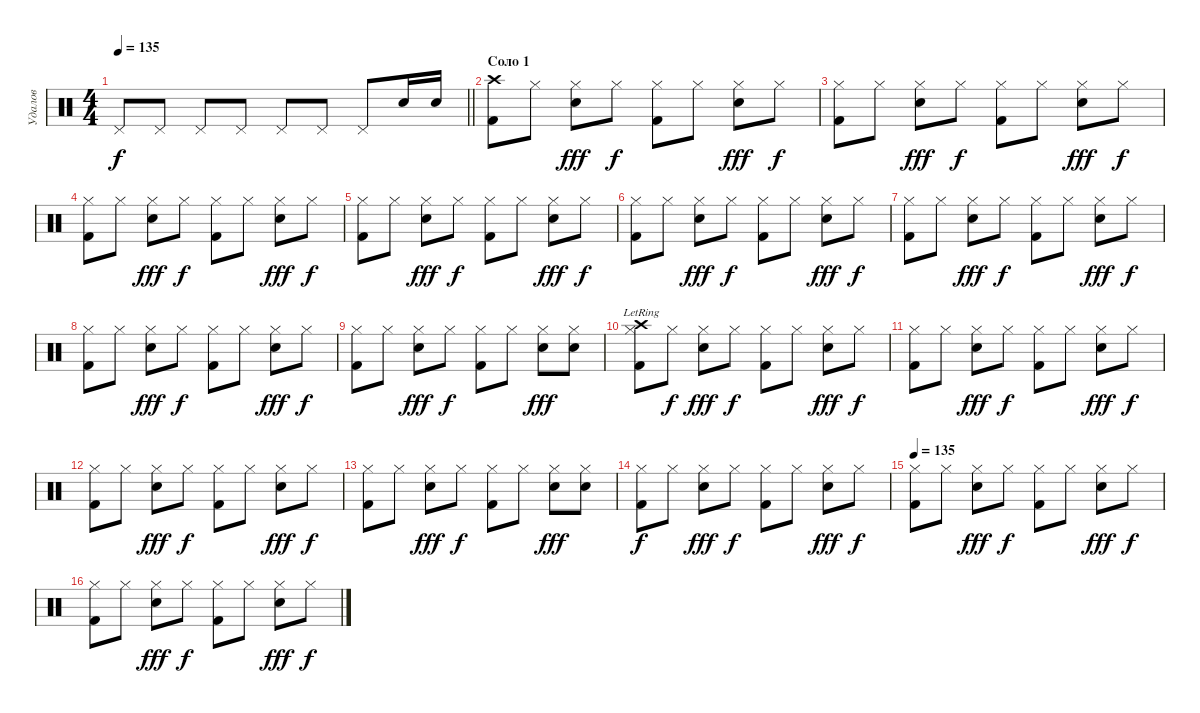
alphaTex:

\track ("Удалов" "Удалов") {instrument percussion}
\staff {score}
\articulation defaults
\ts (4 4)
\tempo 135
\clef neutral
\barLineRight lightlight
\ks c "Pedal Hi-Hat (hit)".8{dy f} "Pedal Hi-Hat (hit)".8 "Pedal Hi-Hat (hit)".8 "Pedal Hi-Hat (hit)".8 "Pedal Hi-Hat (hit)".8 "Pedal Hi-Hat (hit)".8 "Pedal Hi-Hat (hit)".8 "Snare (hit) 2".16 "Snare (hit) 2".16
|
\section ("" "Соло 1")
("Crash high (hit)" "Kick (hit) 2").8 "Hi-Hat (closed)".8 ("Hi-Hat (closed)" "Snare (hit) 2").8{dy fff} "Hi-Hat (closed)".8{dy f} ("Hi-Hat (closed)" "Kick (hit) 2").8 "Hi-Hat (closed)".8 ("Hi-Hat (closed)" "Snare (hit) 2").8{dy fff} "Hi-Hat (closed)".8{dy f} |
("Hi-Hat (closed)" "Kick (hit) 2").8 "Hi-Hat (closed)".8 ("Hi-Hat (closed)" "Snare (hit) 2").8{dy fff} "Hi-Hat (closed)".8{dy f} ("Hi-Hat (closed)" "Kick (hit) 2").8 "Hi-Hat (closed)".8 ("Hi-Hat (closed)" "Snare (hit) 2").8{dy fff} "Hi-Hat (closed)".8{dy f} |
("Hi-Hat (closed)" "Kick (hit) 2").8 "Hi-Hat (closed)".8 ("Hi-Hat (closed)" "Snare (hit) 2").8{dy fff} "Hi-Hat (closed)".8{dy f} ("Hi-Hat (closed)" "Kick (hit) 2").8 "Hi-Hat (closed)".8 ("Hi-Hat (closed)" "Snare (hit) 2").8{dy fff} "Hi-Hat (closed)".8{dy f} |
("Hi-Hat (closed)" "Kick (hit) 2").8 "Hi-Hat (closed)".8 ("Hi-Hat (closed)" "Snare (hit) 2").8{dy fff} "Hi-Hat (closed)".8{dy f} ("Hi-Hat (closed)" "Kick (hit) 2").8 "Hi-Hat (closed)".8 ("Hi-Hat (closed)" "Snare (hit) 2").8{dy fff} "Hi-Hat (closed)".8{dy f} |
("Hi-Hat (closed)" "Kick (hit) 2").8 "Hi-Hat (closed)".8 ("Hi-Hat (closed)" "Snare (hit) 2").8{dy fff} "Hi-Hat (closed)".8{dy f} ("Hi-Hat (closed)" "Kick (hit) 2").8 "Hi-Hat (closed)".8 ("Hi-Hat (closed)" "Snare (hit) 2").8{dy fff} "Hi-Hat (closed)".8{dy f} |
("Hi-Hat (closed)" "Kick (hit) 2").8 "Hi-Hat (closed)".8 ("Hi-Hat (closed)" "Snare (hit) 2").8{dy fff} "Hi-Hat (closed)".8{dy f} ("Hi-Hat (closed)" "Kick (hit) 2").8 "Hi-Hat (closed)".8 ("Hi-Hat (closed)" "Snare (hit) 2").8{dy fff} "Hi-Hat (closed)".8{dy f} |
("Hi-Hat (closed)" "Kick (hit) 2").8 "Hi-Hat (closed)".8 ("Hi-Hat (closed)" "Snare (hit) 2").8{dy fff} "Hi-Hat (closed)".8{dy f} ("Hi-Hat (closed)" "Kick (hit) 2").8 "Hi-Hat (closed)".8 ("Hi-Hat (closed)" "Snare (hit) 2").8{dy fff} "Hi-Hat (closed)".8{dy f} |
("Hi-Hat (closed)" "Kick (hit) 2").8 "Hi-Hat (closed)".8 ("Hi-Hat (closed)" "Snare (hit) 2").8{dy fff} "Hi-Hat (closed)".8{dy f} ("Hi-Hat (closed)" "Kick (hit) 2").8 "Hi-Hat (closed)".8 ("Hi-Hat (closed)" "Snare (hit) 2").8{dy fff} ("Hi-Hat (closed)" "Snare (hit) 2").8 |
("Hi-Hat (closed)" "Kick (hit) 2" "Crash high (hit)"{lr}).8 "Hi-Hat (closed)".8{dy f} ("Hi-Hat (closed)" "Snare (hit) 2").8{dy fff} "Hi-Hat (closed)".8{dy f} ("Hi-Hat (closed)" "Kick (hit) 2").8 "Hi-Hat (closed)".8 ("Hi-Hat (closed)" "Snare (hit) 2").8{dy fff} "Hi-Hat (closed)".8{dy f} |
("Hi-Hat (closed)" "Kick (hit) 2").8 "Hi-Hat (closed)".8 ("Hi-Hat (closed)" "Snare (hit) 2").8{dy fff} "Hi-Hat (closed)".8{dy f} ("Hi-Hat (closed)" "Kick (hit) 2").8 "Hi-Hat (closed)".8 ("Hi-Hat (closed)" "Snare (hit) 2").8{dy fff} "Hi-Hat (closed)".8{dy f} |
("Hi-Hat (closed)" "Kick (hit) 2").8 "Hi-Hat (closed)".8 ("Hi-Hat (closed)" "Snare (hit) 2").8{dy fff} "Hi-Hat (closed)".8{dy f} ("Hi-Hat (closed)" "Kick (hit) 2").8 "Hi-Hat (closed)".8 ("Hi-Hat (closed)" "Snare (hit) 2").8{dy fff} "Hi-Hat (closed)".8{dy f} |
("Hi-Hat (closed)" "Kick (hit) 2").8 "Hi-Hat (closed)".8 ("Hi-Hat (closed)" "Snare (hit) 2").8{dy fff} "Hi-Hat (closed)".8{dy f} ("Hi-Hat (closed)" "Kick (hit) 2").8 "Hi-Hat (closed)".8 ("Hi-Hat (closed)" "Snare (hit) 2").8{dy fff} ("Hi-Hat (closed)" "Snare (hit) 2").8 |
("Hi-Hat (closed)" "Kick (hit) 2").8{dy f} "Hi-Hat (closed)".8 ("Hi-Hat (closed)" "Snare (hit) 2").8{dy fff} "Hi-Hat (closed)".8{dy f} ("Hi-Hat (closed)" "Kick (hit) 2").8 "Hi-Hat (closed)".8 ("Hi-Hat (closed)" "Snare (hit) 2").8{dy fff} "Hi-Hat (closed)".8{dy f} |
\tempo 135
("Hi-Hat (closed)" "Kick (hit) 2").8 "Hi-Hat (closed)".8 ("Hi-Hat (closed)" "Snare (hit) 2").8{dy fff} "Hi-Hat (closed)".8{dy f} ("Hi-Hat (closed)" "Kick (hit) 2").8 "Hi-Hat (closed)".8 ("Hi-Hat (closed)" "Snare (hit) 2").8{dy fff} "Hi-Hat (closed)".8{dy f} |
("Hi-Hat (closed)" "Kick (hit) 2").8 "Hi-Hat (closed)".8 ("Hi-Hat (closed)" "Snare (hit) 2").8{dy fff} "Hi-Hat (closed)".8{dy f} ("Hi-Hat (closed)" "Kick (hit) 2").8 "Hi-Hat (closed)".8 ("Hi-Hat (closed)" "Snare (hit) 2").8{dy fff} "Hi-Hat (closed)".8{dy f}
